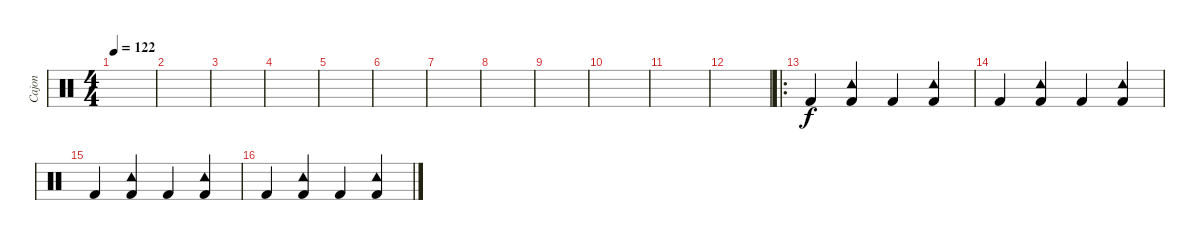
\track ("Cajon" "Cajon") {instrument percussion}
\staff {score}
\articulation defaults
\ts (4 4)
\tempo 122
\clef neutral
\ks c
|
|
|
|
|
|
|
|
|
|
|
|
\ro "Kick (hit) 2".4
("Tambourine (hit)" "Kick (hit) 2").4 "Kick (hit) 2".4 ("Tambourine (hit)" "Kick (hit) 2").4 |
"Kick (hit) 2".4 ("Tambourine (hit)" "Kick (hit) 2").4 "Kick (hit) 2".4 ("Tambourine (hit)" "Kick (hit) 2").4 |
"Kick (hit) 2".4 ("Tambourine (hit)" "Kick (hit) 2").4 "Kick (hit) 2".4 ("Tambourine (hit)" "Kick (hit) 2").4 |
"Kick (hit) 2".4 ("Tambourine (hit)" "Kick (hit) 2").4 "Kick (hit) 2".4 ("Tambourine (hit)" "Kick (hit) 2").4
